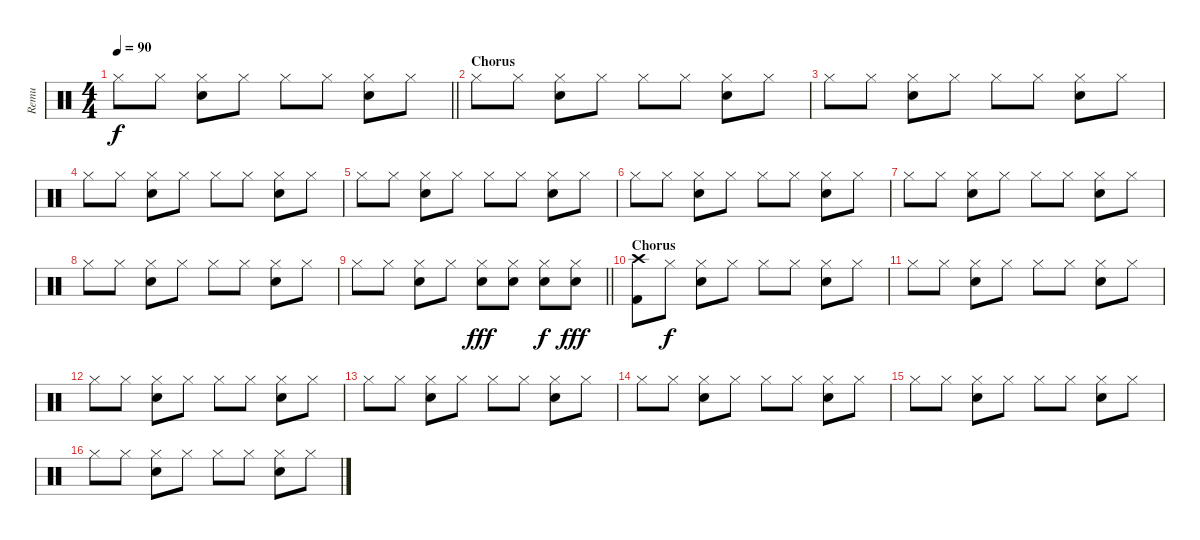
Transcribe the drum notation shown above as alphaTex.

\track ("Remu" "Remu") {instrument percussion}
\staff {score}
\articulation defaults
\ts (4 4)
\tempo 90
\clef neutral
\barLineRight lightlight
\ks c "Hi-Hat (closed)".8{dy f} "Hi-Hat (closed)".8
("Hi-Hat (closed)" "Snare (hit) 2").8 "Hi-Hat (closed)".8 "Hi-Hat (closed)".8 "Hi-Hat (closed)".8 ("Hi-Hat (closed)" "Snare (hit) 2").8 "Hi-Hat (closed)".8 |
\section ("" "Chorus")
"Hi-Hat (closed)".8 "Hi-Hat (closed)".8 ("Hi-Hat (closed)" "Snare (hit) 2").8 "Hi-Hat (closed)".8 "Hi-Hat (closed)".8 "Hi-Hat (closed)".8 ("Hi-Hat (closed)" "Snare (hit) 2").8 "Hi-Hat (closed)".8 |
"Hi-Hat (closed)".8 "Hi-Hat (closed)".8 ("Hi-Hat (closed)" "Snare (hit) 2").8 "Hi-Hat (closed)".8 "Hi-Hat (closed)".8 "Hi-Hat (closed)".8 ("Hi-Hat (closed)" "Snare (hit) 2").8 "Hi-Hat (closed)".8 |
"Hi-Hat (closed)".8 "Hi-Hat (closed)".8 ("Hi-Hat (closed)" "Snare (hit) 2").8 "Hi-Hat (closed)".8 "Hi-Hat (closed)".8 "Hi-Hat (closed)".8 ("Hi-Hat (closed)" "Snare (hit) 2").8 "Hi-Hat (closed)".8 |
"Hi-Hat (closed)".8 "Hi-Hat (closed)".8 ("Hi-Hat (closed)" "Snare (hit) 2").8 "Hi-Hat (closed)".8 "Hi-Hat (closed)".8 "Hi-Hat (closed)".8 ("Hi-Hat (closed)" "Snare (hit) 2").8 "Hi-Hat (closed)".8 |
"Hi-Hat (closed)".8 "Hi-Hat (closed)".8 ("Hi-Hat (closed)" "Snare (hit) 2").8 "Hi-Hat (closed)".8 "Hi-Hat (closed)".8 "Hi-Hat (closed)".8 ("Hi-Hat (closed)" "Snare (hit) 2").8 "Hi-Hat (closed)".8 |
"Hi-Hat (closed)".8 "Hi-Hat (closed)".8 ("Hi-Hat (closed)" "Snare (hit) 2").8 "Hi-Hat (closed)".8 "Hi-Hat (closed)".8 "Hi-Hat (closed)".8 ("Hi-Hat (closed)" "Snare (hit) 2").8 "Hi-Hat (closed)".8 |
"Hi-Hat (closed)".8 "Hi-Hat (closed)".8 ("Hi-Hat (closed)" "Snare (hit) 2").8 "Hi-Hat (closed)".8 "Hi-Hat (closed)".8 "Hi-Hat (closed)".8 ("Hi-Hat (closed)" "Snare (hit) 2").8 "Hi-Hat (closed)".8 |
\barLineRight lightlight "Hi-Hat (closed)".8 "Hi-Hat (closed)".8
("Hi-Hat (closed)" "Snare (hit) 2").8 "Hi-Hat (closed)".8 ("Hi-Hat (closed)" "Snare (hit) 2").8{dy fff} ("Hi-Hat (closed)" "Snare (hit) 2").8 ("Hi-Hat (closed)" "Snare (hit) 2").8{dy f} ("Hi-Hat (closed)" "Snare (hit) 2").8{dy fff} |
\section ("" "Chorus")
("Crash high (hit)" "Kick (hit) 2").8 "Hi-Hat (closed)".8{dy f} ("Hi-Hat (closed)" "Snare (hit) 2").8 "Hi-Hat (closed)".8 "Hi-Hat (closed)".8 "Hi-Hat (closed)".8 ("Hi-Hat (closed)" "Snare (hit) 2").8 "Hi-Hat (closed)".8 |
"Hi-Hat (closed)".8 "Hi-Hat (closed)".8 ("Hi-Hat (closed)" "Snare (hit) 2").8 "Hi-Hat (closed)".8 "Hi-Hat (closed)".8 "Hi-Hat (closed)".8 ("Hi-Hat (closed)" "Snare (hit) 2").8 "Hi-Hat (closed)".8 |
"Hi-Hat (closed)".8 "Hi-Hat (closed)".8 ("Hi-Hat (closed)" "Snare (hit) 2").8 "Hi-Hat (closed)".8 "Hi-Hat (closed)".8 "Hi-Hat (closed)".8 ("Hi-Hat (closed)" "Snare (hit) 2").8 "Hi-Hat (closed)".8 |
"Hi-Hat (closed)".8 "Hi-Hat (closed)".8 ("Hi-Hat (closed)" "Snare (hit) 2").8 "Hi-Hat (closed)".8 "Hi-Hat (closed)".8 "Hi-Hat (closed)".8 ("Hi-Hat (closed)" "Snare (hit) 2").8 "Hi-Hat (closed)".8 |
"Hi-Hat (closed)".8 "Hi-Hat (closed)".8 ("Hi-Hat (closed)" "Snare (hit) 2").8 "Hi-Hat (closed)".8 "Hi-Hat (closed)".8 "Hi-Hat (closed)".8 ("Hi-Hat (closed)" "Snare (hit) 2").8 "Hi-Hat (closed)".8 |
"Hi-Hat (closed)".8 "Hi-Hat (closed)".8 ("Hi-Hat (closed)" "Snare (hit) 2").8 "Hi-Hat (closed)".8 "Hi-Hat (closed)".8 "Hi-Hat (closed)".8 ("Hi-Hat (closed)" "Snare (hit) 2").8 "Hi-Hat (closed)".8 |
"Hi-Hat (closed)".8 "Hi-Hat (closed)".8 ("Hi-Hat (closed)" "Snare (hit) 2").8 "Hi-Hat (closed)".8 "Hi-Hat (closed)".8 "Hi-Hat (closed)".8 ("Hi-Hat (closed)" "Snare (hit) 2").8 "Hi-Hat (closed)".8
